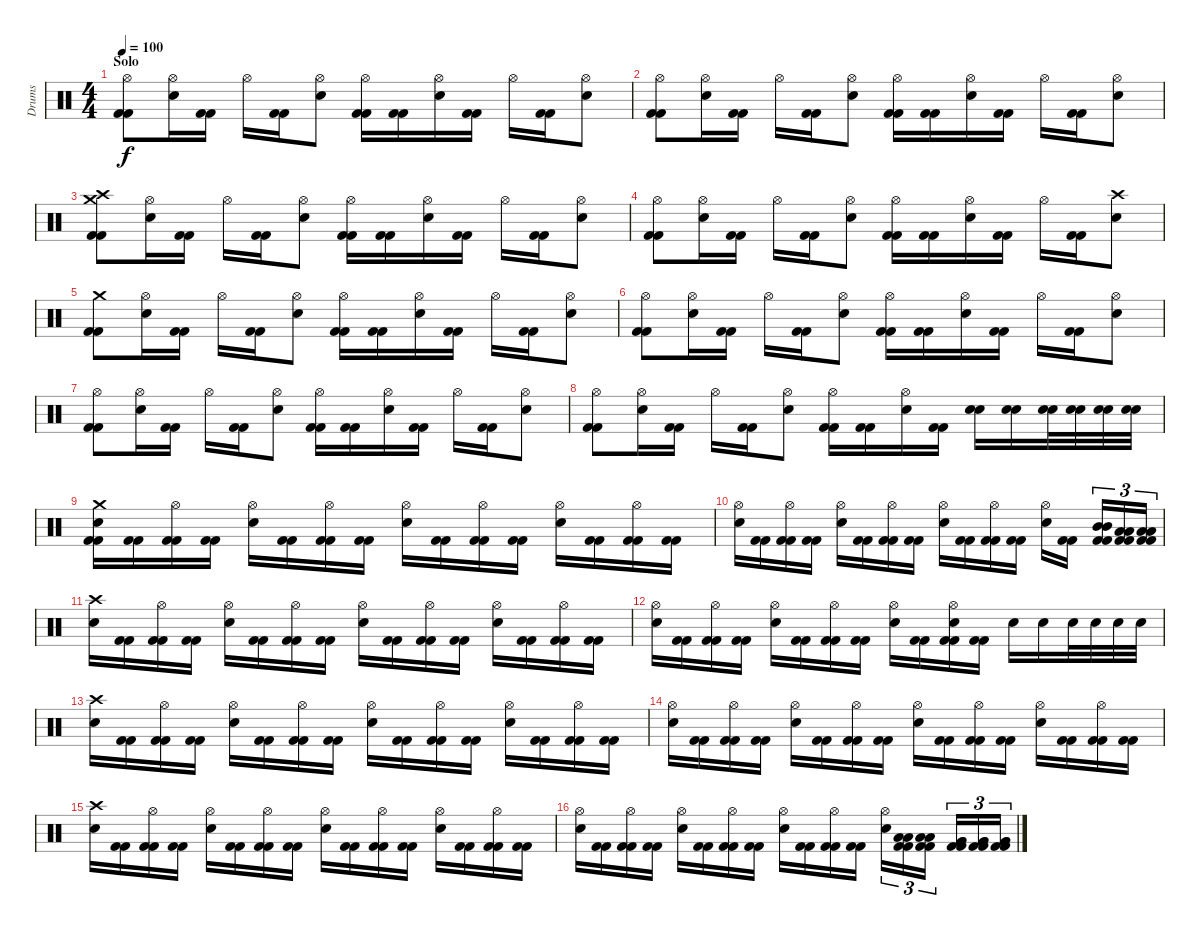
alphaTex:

\track ("Drums" "Drums") {instrument percussion}
\staff {score}
\articulation defaults
\ts (4 4)
\section ("" "Solo")
\tempo 100
\clef neutral
\ks c
("Hi-Hat (open)" "Kick (hit) 2" "Kick (hit) 2").8{dy f} ("Hi-Hat (open)" "Electric Snare (hit)").16 ("Kick (hit) 2" "Kick (hit) 2").16 "Hi-Hat (open)".16 ("Kick (hit) 2" "Kick (hit) 2").16 ("Hi-Hat (open)" "Electric Snare (hit)").8 ("Hi-Hat (open)" "Kick (hit) 2" "Kick (hit) 2").16 ("Kick (hit) 2" "Kick (hit) 2").16 ("Hi-Hat (open)" "Electric Snare (hit)").16 ("Kick (hit) 2" "Kick (hit) 2").16 "Hi-Hat (open)".16 ("Kick (hit) 2" "Kick (hit) 2").16 ("Hi-Hat (open)" "Electric Snare (hit)").8 |
("Hi-Hat (open)" "Kick (hit) 2" "Kick (hit) 2").8 ("Hi-Hat (open)" "Electric Snare (hit)").16 ("Kick (hit) 2" "Kick (hit) 2").16 "Hi-Hat (open)".16 ("Kick (hit) 2" "Kick (hit) 2").16 ("Hi-Hat (open)" "Electric Snare (hit)").8 ("Hi-Hat (open)" "Kick (hit) 2" "Kick (hit) 2").16 ("Kick (hit) 2" "Kick (hit) 2").16 ("Hi-Hat (open)" "Electric Snare (hit)").16 ("Kick (hit) 2" "Kick (hit) 2").16 "Hi-Hat (open)".16 ("Kick (hit) 2" "Kick (hit) 2").16 ("Hi-Hat (open)" "Electric Snare (hit)").8 |
("Crash medium (hit)" "Crash high (hit)" "Kick (hit) 2" "Kick (hit) 2").8 ("Hi-Hat (open)" "Electric Snare (hit)").16 ("Kick (hit) 2" "Kick (hit) 2").16 "Hi-Hat (open)".16 ("Kick (hit) 2" "Kick (hit) 2").16 ("Hi-Hat (open)" "Electric Snare (hit)").8 ("Hi-Hat (open)" "Kick (hit) 2" "Kick (hit) 2").16 ("Kick (hit) 2" "Kick (hit) 2").16 ("Hi-Hat (open)" "Electric Snare (hit)").16 ("Kick (hit) 2" "Kick (hit) 2").16 "Hi-Hat (open)".16 ("Kick (hit) 2" "Kick (hit) 2").16 ("Hi-Hat (open)" "Electric Snare (hit)").8 |
("Hi-Hat (open)" "Kick (hit) 2" "Kick (hit) 2").8 ("Hi-Hat (open)" "Electric Snare (hit)").16 ("Kick (hit) 2" "Kick (hit) 2").16 "Hi-Hat (open)".16 ("Kick (hit) 2" "Kick (hit) 2").16 ("Hi-Hat (open)" "Electric Snare (hit)").8 ("Hi-Hat (open)" "Kick (hit) 2" "Kick (hit) 2").16 ("Kick (hit) 2" "Kick (hit) 2").16 ("Hi-Hat (open)" "Electric Snare (hit)").16 ("Kick (hit) 2" "Kick (hit) 2").16 "Hi-Hat (open)".16 ("Kick (hit) 2" "Kick (hit) 2").16 ("Crash high (hit)" "Electric Snare (hit)").8 |
("Crash medium (hit)" "Kick (hit) 2" "Kick (hit) 2").8 ("Hi-Hat (open)" "Electric Snare (hit)").16 ("Kick (hit) 2" "Kick (hit) 2").16 "Hi-Hat (open)".16 ("Kick (hit) 2" "Kick (hit) 2").16 ("Hi-Hat (open)" "Electric Snare (hit)").8 ("Hi-Hat (open)" "Kick (hit) 2" "Kick (hit) 2").16 ("Kick (hit) 2" "Kick (hit) 2").16 ("Hi-Hat (open)" "Electric Snare (hit)").16 ("Kick (hit) 2" "Kick (hit) 2").16 "Hi-Hat (open)".16 ("Kick (hit) 2" "Kick (hit) 2").16 ("Hi-Hat (open)" "Electric Snare (hit)").8 |
("Hi-Hat (open)" "Kick (hit) 2" "Kick (hit) 2").8 ("Hi-Hat (open)" "Electric Snare (hit)").16 ("Kick (hit) 2" "Kick (hit) 2").16 "Hi-Hat (open)".16 ("Kick (hit) 2" "Kick (hit) 2").16 ("Hi-Hat (open)" "Electric Snare (hit)").8 ("Hi-Hat (open)" "Kick (hit) 2" "Kick (hit) 2").16 ("Kick (hit) 2" "Kick (hit) 2").16 ("Hi-Hat (open)" "Electric Snare (hit)").16 ("Kick (hit) 2" "Kick (hit) 2").16 "Hi-Hat (open)".16 ("Kick (hit) 2" "Kick (hit) 2").16 ("Hi-Hat (open)" "Electric Snare (hit)").8 |
("Hi-Hat (open)" "Kick (hit) 2" "Kick (hit) 2").8 ("Hi-Hat (open)" "Electric Snare (hit)").16 ("Kick (hit) 2" "Kick (hit) 2").16 "Hi-Hat (open)".16 ("Kick (hit) 2" "Kick (hit) 2").16 ("Hi-Hat (open)" "Electric Snare (hit)").8 ("Hi-Hat (open)" "Kick (hit) 2" "Kick (hit) 2").16 ("Kick (hit) 2" "Kick (hit) 2").16 ("Hi-Hat (open)" "Electric Snare (hit)").16 ("Kick (hit) 2" "Kick (hit) 2").16 "Hi-Hat (open)".16 ("Kick (hit) 2" "Kick (hit) 2").16 ("Hi-Hat (open)" "Electric Snare (hit)").8 |
("Hi-Hat (open)" "Kick (hit) 2" "Kick (hit) 2").8 ("Hi-Hat (open)" "Electric Snare (hit)").16 ("Kick (hit) 2" "Kick (hit) 2").16 "Hi-Hat (open)".16 ("Kick (hit) 2" "Kick (hit) 2").16 ("Hi-Hat (open)" "Electric Snare (hit)").8 ("Hi-Hat (open)" "Kick (hit) 2" "Kick (hit) 2").16 ("Kick (hit) 2" "Kick (hit) 2").16 ("Hi-Hat (open)" "Electric Snare (hit)").16 ("Kick (hit) 2" "Kick (hit) 2").16 ("Electric Snare (hit)" "Electric Snare (hit)").16 ("Electric Snare (hit)" "Electric Snare (hit)").16 ("Electric Snare (hit)" "Electric Snare (hit)").32 ("Electric Snare (hit)" "Electric Snare (hit)").32 ("Electric Snare (hit)" "Electric Snare (hit)").32 ("Electric Snare (hit)" "Electric Snare (hit)").32 |
("Crash medium (hit)" "Electric Snare (hit)" "Kick (hit) 2" "Kick (hit) 2").16 ("Kick (hit) 2" "Kick (hit) 2").16 ("Hi-Hat (open)" "Kick (hit) 2" "Kick (hit) 2").16 ("Kick (hit) 2" "Kick (hit) 2").16 ("Hi-Hat (open)" "Electric Snare (hit)").16 ("Kick (hit) 2" "Kick (hit) 2").16 ("Hi-Hat (open)" "Kick (hit) 2" "Kick (hit) 2").16 ("Kick (hit) 2" "Kick (hit) 2").16 ("Hi-Hat (open)" "Electric Snare (hit)").16 ("Kick (hit) 2" "Kick (hit) 2").16 ("Hi-Hat (open)" "Kick (hit) 2" "Kick (hit) 2").16 ("Kick (hit) 2" "Kick (hit) 2").16 ("Hi-Hat (open)" "Electric Snare (hit)").16 ("Kick (hit) 2" "Kick (hit) 2").16 ("Hi-Hat (open)" "Kick (hit) 2" "Kick (hit) 2").16 ("Kick (hit) 2" "Kick (hit) 2").16 |
("Hi-Hat (open)" "Electric Snare (hit)").16 ("Kick (hit) 2" "Kick (hit) 2").16 ("Hi-Hat (open)" "Kick (hit) 2" "Kick (hit) 2").16 ("Kick (hit) 2" "Kick (hit) 2").16 ("Hi-Hat (open)" "Electric Snare (hit)").16 ("Kick (hit) 2" "Kick (hit) 2").16 ("Hi-Hat (open)" "Kick (hit) 2" "Kick (hit) 2").16 ("Kick (hit) 2" "Kick (hit) 2").16 ("Hi-Hat (open)" "Electric Snare (hit)").16 ("Kick (hit) 2" "Kick (hit) 2").16 ("Hi-Hat (open)" "Kick (hit) 2" "Kick (hit) 2").16 ("Kick (hit) 2" "Kick (hit) 2").16 ("Hi-Hat (open)" "Electric Snare (hit)").16 ("Kick (hit) 2" "Kick (hit) 2").16{beam splitsecondary} ("Mid Tom (hit)" "Mid Tom (hit)" "Kick (hit) 2" "Kick (hit) 2").16{tu (3 2)} ("Low Tom (hit)" "Low Tom (hit)" "Kick (hit) 2" "Kick (hit) 2").16{tu (3 2)} ("Low Tom (hit)" "Low Tom (hit)" "Kick (hit) 2" "Kick (hit) 2").16{tu (3 2)} |
("Crash high (hit)" "Electric Snare (hit)").16 ("Kick (hit) 2" "Kick (hit) 2").16 ("Hi-Hat (open)" "Kick (hit) 2" "Kick (hit) 2").16 ("Kick (hit) 2" "Kick (hit) 2").16 ("Hi-Hat (open)" "Electric Snare (hit)").16 ("Kick (hit) 2" "Kick (hit) 2").16 ("Hi-Hat (open)" "Kick (hit) 2" "Kick (hit) 2").16 ("Kick (hit) 2" "Kick (hit) 2").16 ("Hi-Hat (open)" "Electric Snare (hit)").16 ("Kick (hit) 2" "Kick (hit) 2").16 ("Hi-Hat (open)" "Kick (hit) 2" "Kick (hit) 2").16 ("Kick (hit) 2" "Kick (hit) 2").16 ("Hi-Hat (open)" "Electric Snare (hit)").16 ("Kick (hit) 2" "Kick (hit) 2").16 ("Hi-Hat (open)" "Kick (hit) 2" "Kick (hit) 2").16 ("Kick (hit) 2" "Kick (hit) 2").16 |
("Hi-Hat (open)" "Electric Snare (hit)").16 ("Kick (hit) 2" "Kick (hit) 2").16 ("Hi-Hat (open)" "Kick (hit) 2" "Kick (hit) 2").16 ("Kick (hit) 2" "Kick (hit) 2").16 ("Hi-Hat (open)" "Electric Snare (hit)").16 ("Kick (hit) 2" "Kick (hit) 2").16 ("Hi-Hat (open)" "Kick (hit) 2" "Kick (hit) 2").16 ("Kick (hit) 2" "Kick (hit) 2").16 ("Hi-Hat (open)" "Electric Snare (hit)").16 ("Kick (hit) 2" "Kick (hit) 2").16 ("Hi-Hat (open)" "Electric Snare (hit)" "Kick (hit) 2" "Kick (hit) 2").16 ("Kick (hit) 2" "Kick (hit) 2").16 "Electric Snare (hit)".16 "Electric Snare (hit)".16 "Electric Snare (hit)".32 "Electric Snare (hit)".32 "Electric Snare (hit)".32 "Electric Snare (hit)".32 |
("Crash high (hit)" "Electric Snare (hit)").16 ("Kick (hit) 2" "Kick (hit) 2").16 ("Hi-Hat (open)" "Kick (hit) 2" "Kick (hit) 2").16 ("Kick (hit) 2" "Kick (hit) 2").16 ("Hi-Hat (open)" "Electric Snare (hit)").16 ("Kick (hit) 2" "Kick (hit) 2").16 ("Hi-Hat (open)" "Kick (hit) 2" "Kick (hit) 2").16 ("Kick (hit) 2" "Kick (hit) 2").16 ("Hi-Hat (open)" "Electric Snare (hit)").16 ("Kick (hit) 2" "Kick (hit) 2").16 ("Hi-Hat (open)" "Kick (hit) 2" "Kick (hit) 2").16 ("Kick (hit) 2" "Kick (hit) 2").16 ("Hi-Hat (open)" "Electric Snare (hit)").16 ("Kick (hit) 2" "Kick (hit) 2").16 ("Hi-Hat (open)" "Kick (hit) 2" "Kick (hit) 2").16 ("Kick (hit) 2" "Kick (hit) 2").16 |
("Hi-Hat (open)" "Electric Snare (hit)").16 ("Kick (hit) 2" "Kick (hit) 2").16 ("Hi-Hat (open)" "Kick (hit) 2" "Kick (hit) 2").16 ("Kick (hit) 2" "Kick (hit) 2").16 ("Hi-Hat (open)" "Electric Snare (hit)").16 ("Kick (hit) 2" "Kick (hit) 2").16 ("Hi-Hat (open)" "Kick (hit) 2" "Kick (hit) 2").16 ("Kick (hit) 2" "Kick (hit) 2").16 ("Hi-Hat (open)" "Electric Snare (hit)").16 ("Kick (hit) 2" "Kick (hit) 2").16 ("Hi-Hat (open)" "Kick (hit) 2" "Kick (hit) 2").16 ("Kick (hit) 2" "Kick (hit) 2").16 ("Hi-Hat (open)" "Electric Snare (hit)").16 ("Kick (hit) 2" "Kick (hit) 2").16 ("Hi-Hat (open)" "Kick (hit) 2" "Kick (hit) 2").16 ("Kick (hit) 2" "Kick (hit) 2").16 |
("Crash high (hit)" "Electric Snare (hit)").16 ("Kick (hit) 2" "Kick (hit) 2").16 ("Hi-Hat (open)" "Kick (hit) 2" "Kick (hit) 2").16 ("Kick (hit) 2" "Kick (hit) 2").16 ("Hi-Hat (open)" "Electric Snare (hit)").16 ("Kick (hit) 2" "Kick (hit) 2").16 ("Hi-Hat (open)" "Kick (hit) 2" "Kick (hit) 2").16 ("Kick (hit) 2" "Kick (hit) 2").16 ("Hi-Hat (open)" "Electric Snare (hit)").16 ("Kick (hit) 2" "Kick (hit) 2").16 ("Hi-Hat (open)" "Kick (hit) 2" "Kick (hit) 2").16 ("Kick (hit) 2" "Kick (hit) 2").16 ("Hi-Hat (open)" "Electric Snare (hit)").16 ("Kick (hit) 2" "Kick (hit) 2").16 ("Hi-Hat (open)" "Kick (hit) 2" "Kick (hit) 2").16 ("Kick (hit) 2" "Kick (hit) 2").16 |
("Hi-Hat (open)" "Electric Snare (hit)").16 ("Kick (hit) 2" "Kick (hit) 2").16 ("Hi-Hat (open)" "Kick (hit) 2" "Kick (hit) 2").16 ("Kick (hit) 2" "Kick (hit) 2").16 ("Hi-Hat (open)" "Electric Snare (hit)").16 ("Kick (hit) 2" "Kick (hit) 2").16 ("Hi-Hat (open)" "Kick (hit) 2" "Kick (hit) 2").16 ("Kick (hit) 2" "Kick (hit) 2").16 ("Hi-Hat (open)" "Electric Snare (hit)").16 ("Kick (hit) 2" "Kick (hit) 2").16 ("Hi-Hat (open)" "Kick (hit) 2" "Kick (hit) 2").16 ("Kick (hit) 2" "Kick (hit) 2").16 ("Hi-Hat (open)" "Electric Snare (hit)").16{tu (3 2)} ("Low Tom (hit)" "Low Tom (hit)" "Kick (hit) 2" "Kick (hit) 2").16{tu (3 2)} ("Low Tom (hit)" "Low Tom (hit)" "Kick (hit) 2" "Kick (hit) 2").16{tu (3 2) beam splitsecondary} ("Very Low Tom (hit)" "Very Low Tom (hit)" "Kick (hit) 2" "Kick (hit) 2").16{tu (3 2)} ("Very Low Tom (hit)" "Very Low Tom (hit)" "Kick (hit) 2" "Kick (hit) 2").16{tu (3 2)} ("Very Low Tom (hit)" "Very Low Tom (hit)" "Kick (hit) 2" "Kick (hit) 2").16{tu (3 2)}
